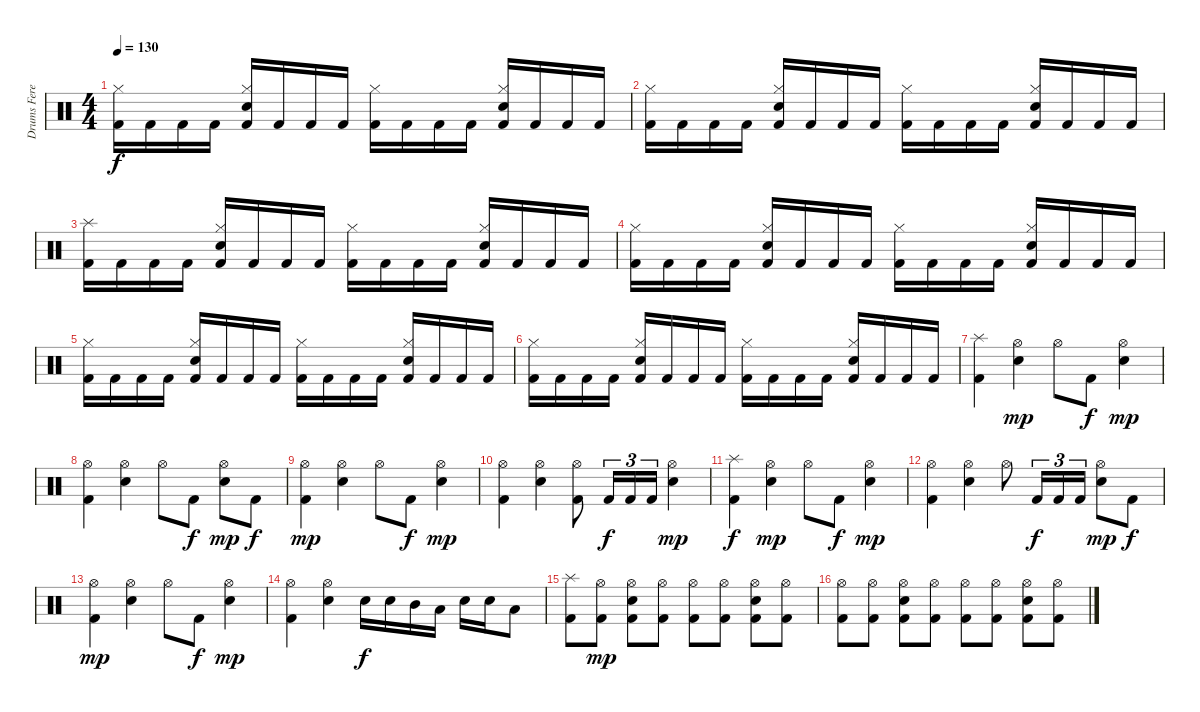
\track ("Drums Feret" "Drums Fere") {instrument percussion}
\staff {score}
\articulation defaults
\ts (4 4)
\tempo 130
\clef neutral
\ks c
("Kick (hit) 2" "Hi-Hat (closed)").16{dy f} "Kick (hit) 2".16 "Kick (hit) 2".16 "Kick (hit) 2".16 ("Kick (hit) 2" "Electric Snare (hit)" "Hi-Hat (closed)").16 "Kick (hit) 2".16 "Kick (hit) 2".16 "Kick (hit) 2".16 ("Kick (hit) 2" "Hi-Hat (closed)").16 "Kick (hit) 2".16 "Kick (hit) 2".16 "Kick (hit) 2".16 ("Kick (hit) 2" "Electric Snare (hit)" "Hi-Hat (closed)").16 "Kick (hit) 2".16 "Kick (hit) 2".16 "Kick (hit) 2".16 |
("Kick (hit) 2" "Hi-Hat (closed)").16 "Kick (hit) 2".16 "Kick (hit) 2".16 "Kick (hit) 2".16 ("Kick (hit) 2" "Electric Snare (hit)" "Hi-Hat (closed)").16 "Kick (hit) 2".16 "Kick (hit) 2".16 "Kick (hit) 2".16 ("Kick (hit) 2" "Hi-Hat (closed)").16 "Kick (hit) 2".16 "Kick (hit) 2".16 "Kick (hit) 2".16 ("Kick (hit) 2" "Electric Snare (hit)" "Hi-Hat (closed)").16 "Kick (hit) 2".16 "Kick (hit) 2".16 "Kick (hit) 2".16 |
("Kick (hit) 2" "Splash (hit)").16 "Kick (hit) 2".16 "Kick (hit) 2".16 "Kick (hit) 2".16 ("Kick (hit) 2" "Electric Snare (hit)" "Hi-Hat (closed)").16 "Kick (hit) 2".16 "Kick (hit) 2".16 "Kick (hit) 2".16 ("Kick (hit) 2" "Hi-Hat (closed)").16 "Kick (hit) 2".16 "Kick (hit) 2".16 "Kick (hit) 2".16 ("Kick (hit) 2" "Electric Snare (hit)" "Hi-Hat (closed)").16 "Kick (hit) 2".16 "Kick (hit) 2".16 "Kick (hit) 2".16 |
("Kick (hit) 2" "Hi-Hat (closed)").16 "Kick (hit) 2".16 "Kick (hit) 2".16 "Kick (hit) 2".16 ("Kick (hit) 2" "Electric Snare (hit)" "Hi-Hat (closed)").16 "Kick (hit) 2".16 "Kick (hit) 2".16 "Kick (hit) 2".16 ("Kick (hit) 2" "Hi-Hat (closed)").16 "Kick (hit) 2".16 "Kick (hit) 2".16 "Kick (hit) 2".16 ("Kick (hit) 2" "Electric Snare (hit)" "Hi-Hat (closed)").16 "Kick (hit) 2".16 "Kick (hit) 2".16 "Kick (hit) 2".16 |
("Kick (hit) 2" "Hi-Hat (closed)").16 "Kick (hit) 2".16 "Kick (hit) 2".16 "Kick (hit) 2".16 ("Kick (hit) 2" "Electric Snare (hit)" "Hi-Hat (closed)").16 "Kick (hit) 2".16 "Kick (hit) 2".16 "Kick (hit) 2".16 ("Kick (hit) 2" "Hi-Hat (closed)").16 "Kick (hit) 2".16 "Kick (hit) 2".16 "Kick (hit) 2".16 ("Kick (hit) 2" "Electric Snare (hit)" "Hi-Hat (closed)").16 "Kick (hit) 2".16 "Kick (hit) 2".16 "Kick (hit) 2".16 |
("Kick (hit) 2" "Hi-Hat (closed)").16 "Kick (hit) 2".16 "Kick (hit) 2".16 "Kick (hit) 2".16 ("Kick (hit) 2" "Electric Snare (hit)" "Hi-Hat (closed)").16 "Kick (hit) 2".16 "Kick (hit) 2".16 "Kick (hit) 2".16 ("Kick (hit) 2" "Hi-Hat (closed)").16 "Kick (hit) 2".16 "Kick (hit) 2".16 "Kick (hit) 2".16 ("Kick (hit) 2" "Electric Snare (hit)" "Hi-Hat (closed)").16 "Kick (hit) 2".16 "Kick (hit) 2".16 "Kick (hit) 2".16 |
("Kick (hit) 2" "Splash (hit)").4 ("Electric Snare (hit)" "Hi-Hat (open)").4{dy mp} "Hi-Hat (open)".8 "Kick (hit) 2".8{dy f} ("Electric Snare (hit)" "Hi-Hat (open)").4{dy mp} |
("Kick (hit) 2" "Hi-Hat (open)").4 ("Electric Snare (hit)" "Hi-Hat (open)").4 "Hi-Hat (open)".8 "Kick (hit) 2".8{dy f} ("Electric Snare (hit)" "Hi-Hat (open)").8{dy mp} "Kick (hit) 2".8{dy f} |
("Kick (hit) 2" "Hi-Hat (open)").4{dy mp} ("Electric Snare (hit)" "Hi-Hat (open)").4 "Hi-Hat (open)".8 "Kick (hit) 2".8{dy f} ("Electric Snare (hit)" "Hi-Hat (open)").4{dy mp} |
("Kick (hit) 2" "Hi-Hat (open)").4 ("Electric Snare (hit)" "Hi-Hat (open)").4 ("Kick (hit) 2" "Hi-Hat (open)").8 "Kick (hit) 2".16{tu (3 2) dy f} "Kick (hit) 2".16{tu (3 2)} "Kick (hit) 2".16{tu (3 2)} ("Electric Snare (hit)" "Hi-Hat (open)").4{dy mp} |
("Kick (hit) 2" "Splash (hit)").4{dy f} ("Electric Snare (hit)" "Hi-Hat (open)").4{dy mp} "Hi-Hat (open)".8 "Kick (hit) 2".8{dy f} ("Electric Snare (hit)" "Hi-Hat (open)").4{dy mp} |
("Kick (hit) 2" "Hi-Hat (open)").4 ("Electric Snare (hit)" "Hi-Hat (open)").4 "Hi-Hat (open)".8 "Kick (hit) 2".16{tu (3 2) dy f} "Kick (hit) 2".16{tu (3 2)} "Kick (hit) 2".16{tu (3 2)} ("Electric Snare (hit)" "Hi-Hat (open)").8{dy mp} "Kick (hit) 2".8{dy f} |
("Kick (hit) 2" "Hi-Hat (open)").4{dy mp} ("Electric Snare (hit)" "Hi-Hat (open)").4 "Hi-Hat (open)".8 "Kick (hit) 2".8{dy f} ("Electric Snare (hit)" "Hi-Hat (open)").4{dy mp} |
("Kick (hit) 2" "Hi-Hat (open)").4 ("Electric Snare (hit)" "Hi-Hat (open)").4 "Electric Snare (hit)".16{dy f} "Electric Snare (hit)".16 "Mid Tom (hit)".16 "Low Tom (hit)".16 "Electric Snare (hit)".16 "Electric Snare (hit)".16 "Low Floor Tom (hit)".8 |
("Kick (hit) 2" "Splash (hit)").8 ("Kick (hit) 2" "Hi-Hat (open)").8{dy mp} ("Kick (hit) 2" "Electric Snare (hit)" "Hi-Hat (open)").8 ("Kick (hit) 2" "Hi-Hat (open)").8 ("Kick (hit) 2" "Hi-Hat (open)").8 ("Kick (hit) 2" "Hi-Hat (open)").8 ("Kick (hit) 2" "Electric Snare (hit)" "Hi-Hat (open)").8 ("Kick (hit) 2" "Hi-Hat (open)").8 |
("Kick (hit) 2" "Hi-Hat (open)").8 ("Kick (hit) 2" "Hi-Hat (open)").8 ("Kick (hit) 2" "Electric Snare (hit)" "Hi-Hat (open)").8 ("Kick (hit) 2" "Hi-Hat (open)").8 ("Kick (hit) 2" "Hi-Hat (open)").8 ("Kick (hit) 2" "Hi-Hat (open)").8 ("Kick (hit) 2" "Electric Snare (hit)" "Hi-Hat (open)").8 ("Kick (hit) 2" "Hi-Hat (open)").8
